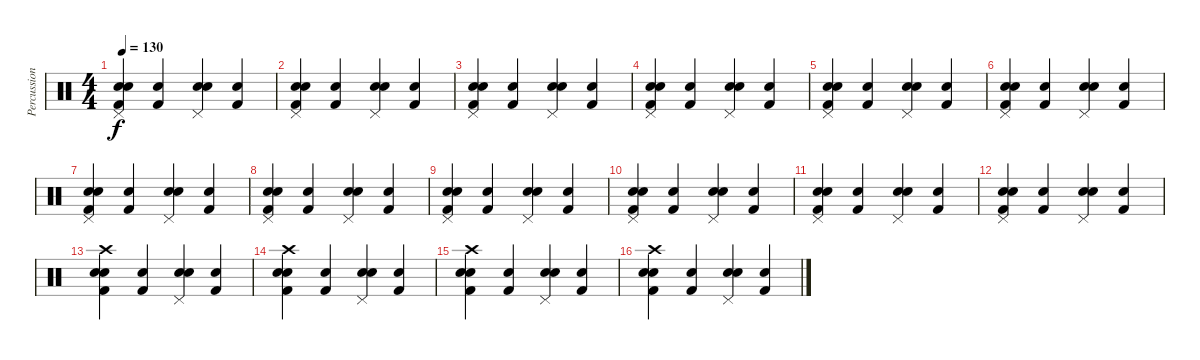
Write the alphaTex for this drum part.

\track ("Percussion" "Percussion") {instrument percussion}
\staff {score}
\articulation defaults
\ts (4 4)
\tempo 130
\clef neutral
\ks c
("Pedal Hi-Hat (hit)" "Snare (hit) 2" "Kick (hit) 2" "Snare (hit) 2").4{dy f volume 10} ("Kick (hit) 2" "Snare (hit) 2").4 ("Pedal Hi-Hat (hit)" "Snare (hit) 2" "Snare (hit) 2").4 ("Snare (hit) 2" "Kick (hit) 2").4 |
("Pedal Hi-Hat (hit)" "Snare (hit) 2" "Kick (hit) 2" "Snare (hit) 2").4{volume 10} ("Kick (hit) 2" "Snare (hit) 2").4 ("Pedal Hi-Hat (hit)" "Snare (hit) 2" "Snare (hit) 2").4 ("Snare (hit) 2" "Kick (hit) 2").4 |
("Pedal Hi-Hat (hit)" "Snare (hit) 2" "Kick (hit) 2" "Snare (hit) 2").4{volume 10} ("Kick (hit) 2" "Snare (hit) 2").4 ("Pedal Hi-Hat (hit)" "Snare (hit) 2" "Snare (hit) 2").4 ("Snare (hit) 2" "Kick (hit) 2").4 |
("Pedal Hi-Hat (hit)" "Snare (hit) 2" "Kick (hit) 2" "Snare (hit) 2").4{volume 10} ("Kick (hit) 2" "Snare (hit) 2").4 ("Pedal Hi-Hat (hit)" "Snare (hit) 2" "Snare (hit) 2").4 ("Snare (hit) 2" "Kick (hit) 2").4 |
("Pedal Hi-Hat (hit)" "Snare (hit) 2" "Kick (hit) 2" "Snare (hit) 2").4{volume 10} ("Kick (hit) 2" "Snare (hit) 2").4 ("Pedal Hi-Hat (hit)" "Snare (hit) 2" "Snare (hit) 2").4 ("Snare (hit) 2" "Kick (hit) 2").4 |
("Pedal Hi-Hat (hit)" "Snare (hit) 2" "Kick (hit) 2" "Snare (hit) 2").4{volume 10} ("Kick (hit) 2" "Snare (hit) 2").4 ("Pedal Hi-Hat (hit)" "Snare (hit) 2" "Snare (hit) 2").4 ("Snare (hit) 2" "Kick (hit) 2").4 |
("Pedal Hi-Hat (hit)" "Snare (hit) 2" "Kick (hit) 2" "Snare (hit) 2").4{volume 10} ("Kick (hit) 2" "Snare (hit) 2").4 ("Pedal Hi-Hat (hit)" "Snare (hit) 2" "Snare (hit) 2").4 ("Snare (hit) 2" "Kick (hit) 2").4 |
("Pedal Hi-Hat (hit)" "Snare (hit) 2" "Kick (hit) 2" "Snare (hit) 2").4{volume 10} ("Kick (hit) 2" "Snare (hit) 2").4 ("Pedal Hi-Hat (hit)" "Snare (hit) 2" "Snare (hit) 2").4 ("Snare (hit) 2" "Kick (hit) 2").4 |
("Pedal Hi-Hat (hit)" "Snare (hit) 2" "Kick (hit) 2" "Snare (hit) 2").4{volume 10} ("Kick (hit) 2" "Snare (hit) 2").4 ("Pedal Hi-Hat (hit)" "Snare (hit) 2" "Snare (hit) 2").4 ("Snare (hit) 2" "Kick (hit) 2").4 |
("Pedal Hi-Hat (hit)" "Snare (hit) 2" "Kick (hit) 2" "Snare (hit) 2").4{volume 10} ("Kick (hit) 2" "Snare (hit) 2").4 ("Pedal Hi-Hat (hit)" "Snare (hit) 2" "Snare (hit) 2").4 ("Snare (hit) 2" "Kick (hit) 2").4 |
("Pedal Hi-Hat (hit)" "Snare (hit) 2" "Kick (hit) 2" "Snare (hit) 2").4{volume 10} ("Kick (hit) 2" "Snare (hit) 2").4 ("Pedal Hi-Hat (hit)" "Snare (hit) 2" "Snare (hit) 2").4 ("Snare (hit) 2" "Kick (hit) 2").4 |
("Pedal Hi-Hat (hit)" "Snare (hit) 2" "Kick (hit) 2" "Snare (hit) 2").4{volume 10} ("Kick (hit) 2" "Snare (hit) 2").4 ("Pedal Hi-Hat (hit)" "Snare (hit) 2" "Snare (hit) 2").4 ("Snare (hit) 2" "Kick (hit) 2").4 |
("Crash high (hit)" "Snare (hit) 2" "Kick (hit) 2" "Snare (hit) 2").4 ("Kick (hit) 2" "Snare (hit) 2").4 ("Pedal Hi-Hat (hit)" "Snare (hit) 2" "Snare (hit) 2").4 ("Snare (hit) 2" "Kick (hit) 2").4 |
("Crash high (hit)" "Snare (hit) 2" "Kick (hit) 2" "Snare (hit) 2").4 ("Kick (hit) 2" "Snare (hit) 2").4 ("Pedal Hi-Hat (hit)" "Snare (hit) 2" "Snare (hit) 2").4 ("Snare (hit) 2" "Kick (hit) 2").4 |
("Crash high (hit)" "Snare (hit) 2" "Kick (hit) 2" "Snare (hit) 2").4 ("Kick (hit) 2" "Snare (hit) 2").4 ("Pedal Hi-Hat (hit)" "Snare (hit) 2" "Snare (hit) 2").4 ("Snare (hit) 2" "Kick (hit) 2").4 |
("Crash high (hit)" "Snare (hit) 2" "Kick (hit) 2" "Snare (hit) 2").4 ("Kick (hit) 2" "Snare (hit) 2").4 ("Pedal Hi-Hat (hit)" "Snare (hit) 2" "Snare (hit) 2").4 ("Snare (hit) 2" "Kick (hit) 2").4
